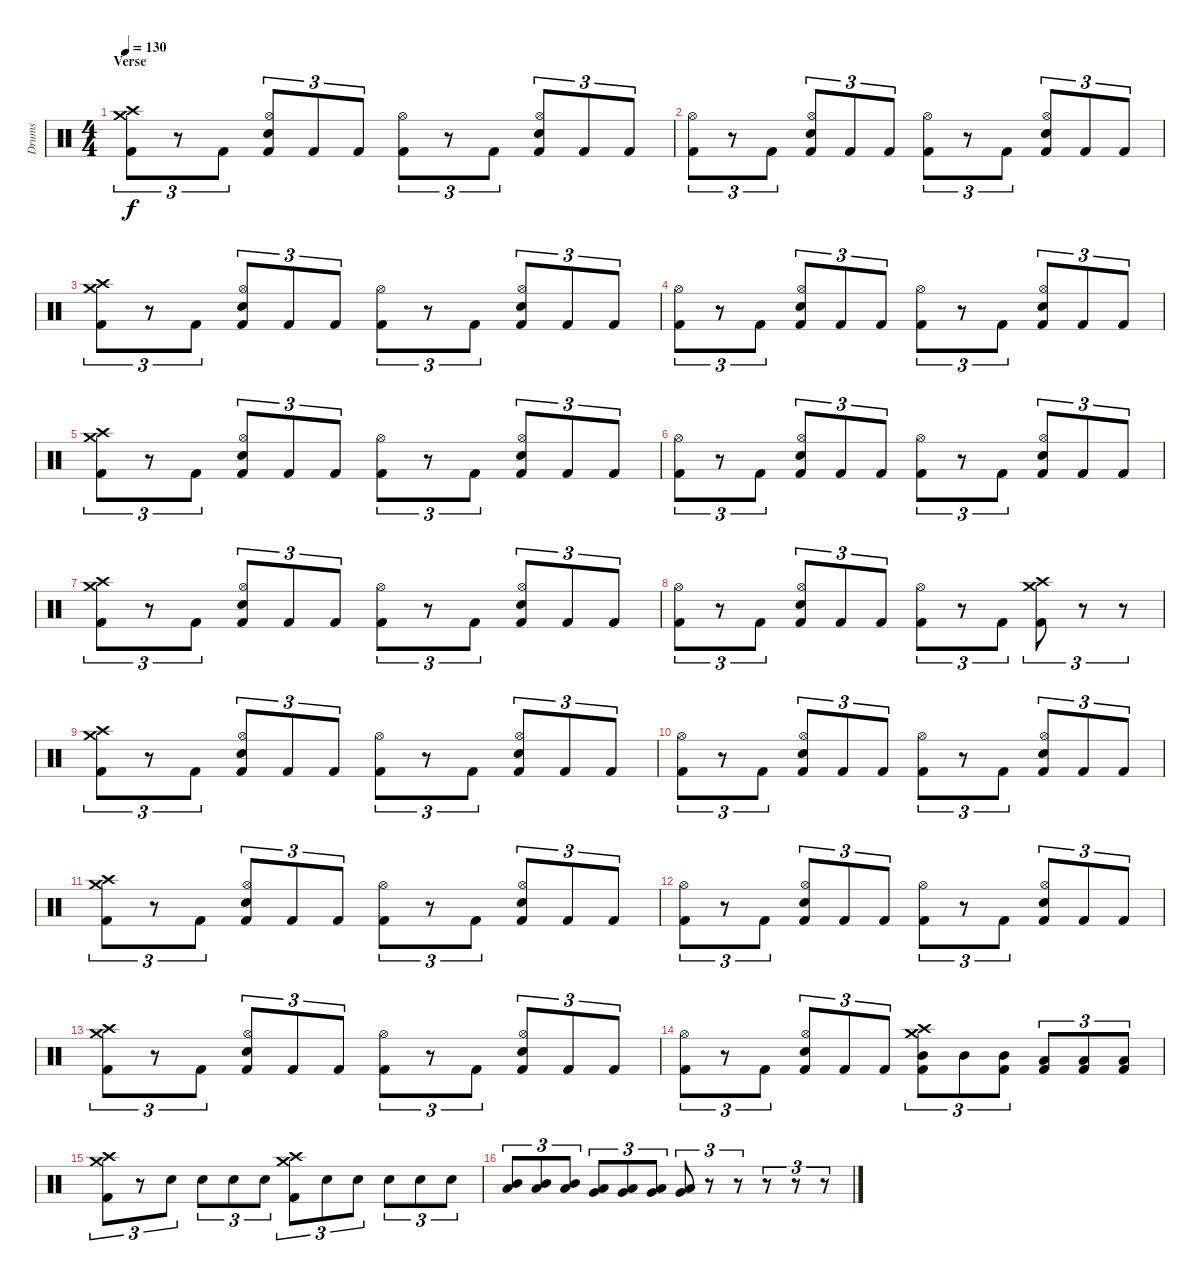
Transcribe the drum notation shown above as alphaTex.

\track ("Drums" "Drums") {instrument percussion}
\staff {score}
\articulation defaults
\ts (4 4)
\section ("" "Verse")
\tempo 130
\clef neutral
\ks c
("Crash medium (hit)" "Crash high (hit)" "Kick (hit) 2").8{tu (3 2) dy f} r.8{tu (3 2)} "Kick (hit) 2".8{tu (3 2)} ("Hi-Hat (open)" "Snare (hit) 2" "Kick (hit) 2").8{tu (3 2)} "Kick (hit) 2".8{tu (3 2)} "Kick (hit) 2".8{tu (3 2)} ("Hi-Hat (open)" "Kick (hit) 2").8{tu (3 2)} r.8{tu (3 2)} "Kick (hit) 2".8{tu (3 2)} ("Hi-Hat (open)" "Snare (hit) 2" "Kick (hit) 2").8{tu (3 2)} "Kick (hit) 2".8{tu (3 2)} "Kick (hit) 2".8{tu (3 2)} |
("Hi-Hat (open)" "Kick (hit) 2").8{tu (3 2)} r.8{tu (3 2)} "Kick (hit) 2".8{tu (3 2)} ("Hi-Hat (open)" "Snare (hit) 2" "Kick (hit) 2").8{tu (3 2)} "Kick (hit) 2".8{tu (3 2)} "Kick (hit) 2".8{tu (3 2)} ("Hi-Hat (open)" "Kick (hit) 2").8{tu (3 2)} r.8{tu (3 2)} "Kick (hit) 2".8{tu (3 2)} ("Hi-Hat (open)" "Snare (hit) 2" "Kick (hit) 2").8{tu (3 2)} "Kick (hit) 2".8{tu (3 2)} "Kick (hit) 2".8{tu (3 2)} |
("Crash medium (hit)" "Crash high (hit)" "Kick (hit) 2").8{tu (3 2)} r.8{tu (3 2)} "Kick (hit) 2".8{tu (3 2)} ("Hi-Hat (open)" "Snare (hit) 2" "Kick (hit) 2").8{tu (3 2)} "Kick (hit) 2".8{tu (3 2)} "Kick (hit) 2".8{tu (3 2)} ("Hi-Hat (open)" "Kick (hit) 2").8{tu (3 2)} r.8{tu (3 2)} "Kick (hit) 2".8{tu (3 2)} ("Hi-Hat (open)" "Snare (hit) 2" "Kick (hit) 2").8{tu (3 2)} "Kick (hit) 2".8{tu (3 2)} "Kick (hit) 2".8{tu (3 2)} |
("Hi-Hat (open)" "Kick (hit) 2").8{tu (3 2)} r.8{tu (3 2)} "Kick (hit) 2".8{tu (3 2)} ("Hi-Hat (open)" "Snare (hit) 2" "Kick (hit) 2").8{tu (3 2)} "Kick (hit) 2".8{tu (3 2)} "Kick (hit) 2".8{tu (3 2)} ("Hi-Hat (open)" "Kick (hit) 2").8{tu (3 2)} r.8{tu (3 2)} "Kick (hit) 2".8{tu (3 2)} ("Hi-Hat (open)" "Snare (hit) 2" "Kick (hit) 2").8{tu (3 2)} "Kick (hit) 2".8{tu (3 2)} "Kick (hit) 2".8{tu (3 2)} |
("Crash medium (hit)" "Crash high (hit)" "Kick (hit) 2").8{tu (3 2)} r.8{tu (3 2)} "Kick (hit) 2".8{tu (3 2)} ("Hi-Hat (open)" "Snare (hit) 2" "Kick (hit) 2").8{tu (3 2)} "Kick (hit) 2".8{tu (3 2)} "Kick (hit) 2".8{tu (3 2)} ("Hi-Hat (open)" "Kick (hit) 2").8{tu (3 2)} r.8{tu (3 2)} "Kick (hit) 2".8{tu (3 2)} ("Hi-Hat (open)" "Snare (hit) 2" "Kick (hit) 2").8{tu (3 2)} "Kick (hit) 2".8{tu (3 2)} "Kick (hit) 2".8{tu (3 2)} |
("Hi-Hat (open)" "Kick (hit) 2").8{tu (3 2)} r.8{tu (3 2)} "Kick (hit) 2".8{tu (3 2)} ("Hi-Hat (open)" "Snare (hit) 2" "Kick (hit) 2").8{tu (3 2)} "Kick (hit) 2".8{tu (3 2)} "Kick (hit) 2".8{tu (3 2)} ("Hi-Hat (open)" "Kick (hit) 2").8{tu (3 2)} r.8{tu (3 2)} "Kick (hit) 2".8{tu (3 2)} ("Hi-Hat (open)" "Snare (hit) 2" "Kick (hit) 2").8{tu (3 2)} "Kick (hit) 2".8{tu (3 2)} "Kick (hit) 2".8{tu (3 2)} |
("Crash medium (hit)" "Crash high (hit)" "Kick (hit) 2").8{tu (3 2)} r.8{tu (3 2)} "Kick (hit) 2".8{tu (3 2)} ("Hi-Hat (open)" "Snare (hit) 2" "Kick (hit) 2").8{tu (3 2)} "Kick (hit) 2".8{tu (3 2)} "Kick (hit) 2".8{tu (3 2)} ("Hi-Hat (open)" "Kick (hit) 2").8{tu (3 2)} r.8{tu (3 2)} "Kick (hit) 2".8{tu (3 2)} ("Hi-Hat (open)" "Snare (hit) 2" "Kick (hit) 2").8{tu (3 2)} "Kick (hit) 2".8{tu (3 2)} "Kick (hit) 2".8{tu (3 2)} |
("Hi-Hat (open)" "Kick (hit) 2").8{tu (3 2)} r.8{tu (3 2)} "Kick (hit) 2".8{tu (3 2)} ("Hi-Hat (open)" "Snare (hit) 2" "Kick (hit) 2").8{tu (3 2)} "Kick (hit) 2".8{tu (3 2)} "Kick (hit) 2".8{tu (3 2)} ("Hi-Hat (open)" "Kick (hit) 2").8{tu (3 2)} r.8{tu (3 2)} "Kick (hit) 2".8{tu (3 2)} ("Crash medium (hit)" "Crash high (hit)" "Kick (hit) 2").8{tu (3 2)} r.8{tu (3 2)} r.8{tu (3 2)} |
("Crash medium (hit)" "Crash high (hit)" "Kick (hit) 2").8{tu (3 2)} r.8{tu (3 2)} "Kick (hit) 2".8{tu (3 2)} ("Hi-Hat (open)" "Snare (hit) 2" "Kick (hit) 2").8{tu (3 2)} "Kick (hit) 2".8{tu (3 2)} "Kick (hit) 2".8{tu (3 2)} ("Hi-Hat (open)" "Kick (hit) 2").8{tu (3 2)} r.8{tu (3 2)} "Kick (hit) 2".8{tu (3 2)} ("Hi-Hat (open)" "Snare (hit) 2" "Kick (hit) 2").8{tu (3 2)} "Kick (hit) 2".8{tu (3 2)} "Kick (hit) 2".8{tu (3 2)} |
("Hi-Hat (open)" "Kick (hit) 2").8{tu (3 2)} r.8{tu (3 2)} "Kick (hit) 2".8{tu (3 2)} ("Hi-Hat (open)" "Snare (hit) 2" "Kick (hit) 2").8{tu (3 2)} "Kick (hit) 2".8{tu (3 2)} "Kick (hit) 2".8{tu (3 2)} ("Hi-Hat (open)" "Kick (hit) 2").8{tu (3 2)} r.8{tu (3 2)} "Kick (hit) 2".8{tu (3 2)} ("Hi-Hat (open)" "Snare (hit) 2" "Kick (hit) 2").8{tu (3 2)} "Kick (hit) 2".8{tu (3 2)} "Kick (hit) 2".8{tu (3 2)} |
("Crash medium (hit)" "Crash high (hit)" "Kick (hit) 2").8{tu (3 2)} r.8{tu (3 2)} "Kick (hit) 2".8{tu (3 2)} ("Hi-Hat (open)" "Snare (hit) 2" "Kick (hit) 2").8{tu (3 2)} "Kick (hit) 2".8{tu (3 2)} "Kick (hit) 2".8{tu (3 2)} ("Hi-Hat (open)" "Kick (hit) 2").8{tu (3 2)} r.8{tu (3 2)} "Kick (hit) 2".8{tu (3 2)} ("Hi-Hat (open)" "Snare (hit) 2" "Kick (hit) 2").8{tu (3 2)} "Kick (hit) 2".8{tu (3 2)} "Kick (hit) 2".8{tu (3 2)} |
("Hi-Hat (open)" "Kick (hit) 2").8{tu (3 2)} r.8{tu (3 2)} "Kick (hit) 2".8{tu (3 2)} ("Hi-Hat (open)" "Snare (hit) 2" "Kick (hit) 2").8{tu (3 2)} "Kick (hit) 2".8{tu (3 2)} "Kick (hit) 2".8{tu (3 2)} ("Hi-Hat (open)" "Kick (hit) 2").8{tu (3 2)} r.8{tu (3 2)} "Kick (hit) 2".8{tu (3 2)} ("Hi-Hat (open)" "Snare (hit) 2" "Kick (hit) 2").8{tu (3 2)} "Kick (hit) 2".8{tu (3 2)} "Kick (hit) 2".8{tu (3 2)} |
("Crash medium (hit)" "Crash high (hit)" "Kick (hit) 2").8{tu (3 2)} r.8{tu (3 2)} "Kick (hit) 2".8{tu (3 2)} ("Hi-Hat (open)" "Snare (hit) 2" "Kick (hit) 2").8{tu (3 2)} "Kick (hit) 2".8{tu (3 2)} "Kick (hit) 2".8{tu (3 2)} ("Hi-Hat (open)" "Kick (hit) 2").8{tu (3 2)} r.8{tu (3 2)} "Kick (hit) 2".8{tu (3 2)} ("Hi-Hat (open)" "Snare (hit) 2" "Kick (hit) 2").8{tu (3 2)} "Kick (hit) 2".8{tu (3 2)} "Kick (hit) 2".8{tu (3 2)} |
("Hi-Hat (open)" "Kick (hit) 2").8{tu (3 2)} r.8{tu (3 2)} "Kick (hit) 2".8{tu (3 2)} ("Hi-Hat (open)" "Snare (hit) 2" "Kick (hit) 2").8{tu (3 2)} "Kick (hit) 2".8{tu (3 2)} "Kick (hit) 2".8{tu (3 2)} ("Crash medium (hit)" "Crash high (hit)" "Mid Tom (hit)" "Kick (hit) 2").8{tu (3 2)} "Mid Tom (hit)".8{tu (3 2)} ("Mid Tom (hit)" "Kick (hit) 2").8{tu (3 2)} ("Low Tom (hit)" "Kick (hit) 2").8{tu (3 2)} ("Low Tom (hit)" "Kick (hit) 2").8{tu (3 2)} ("Low Tom (hit)" "Kick (hit) 2").8{tu (3 2)} |
("Crash medium (hit)" "Crash high (hit)" "Kick (hit) 2").8{tu (3 2)} r.8{tu (3 2)} "Snare (hit) 2".8{tu (3 2)} "Snare (hit) 2".8{tu (3 2)} "Snare (hit) 2".8{tu (3 2)} "Snare (hit) 2".8{tu (3 2)} ("Crash high (hit)" "Crash medium (hit)" "Kick (hit) 2").8{tu (3 2)} "Snare (hit) 2".8{tu (3 2)} "Snare (hit) 2".8{tu (3 2)} "Snare (hit) 2".8{tu (3 2)} "Snare (hit) 2".8{tu (3 2)} "Snare (hit) 2".8{tu (3 2)} |
("Mid Tom (hit)" "Low Tom (hit)").8{tu (3 2)} ("Mid Tom (hit)" "Low Tom (hit)").8{tu (3 2)} ("Mid Tom (hit)" "Low Tom (hit)").8{tu (3 2)} ("Low Tom (hit)" "Very Low Tom (hit)").8{tu (3 2)} ("Low Tom (hit)" "Very Low Tom (hit)").8{tu (3 2)} ("Low Tom (hit)" "Very Low Tom (hit)").8{tu (3 2)} ("Very Low Tom (hit)" "Low Floor Tom (hit)").8{tu (3 2)} r.8{tu (3 2)} r.8{tu (3 2)} r.8{tu (3 2)} r.8{tu (3 2)} r.8{tu (3 2)}
